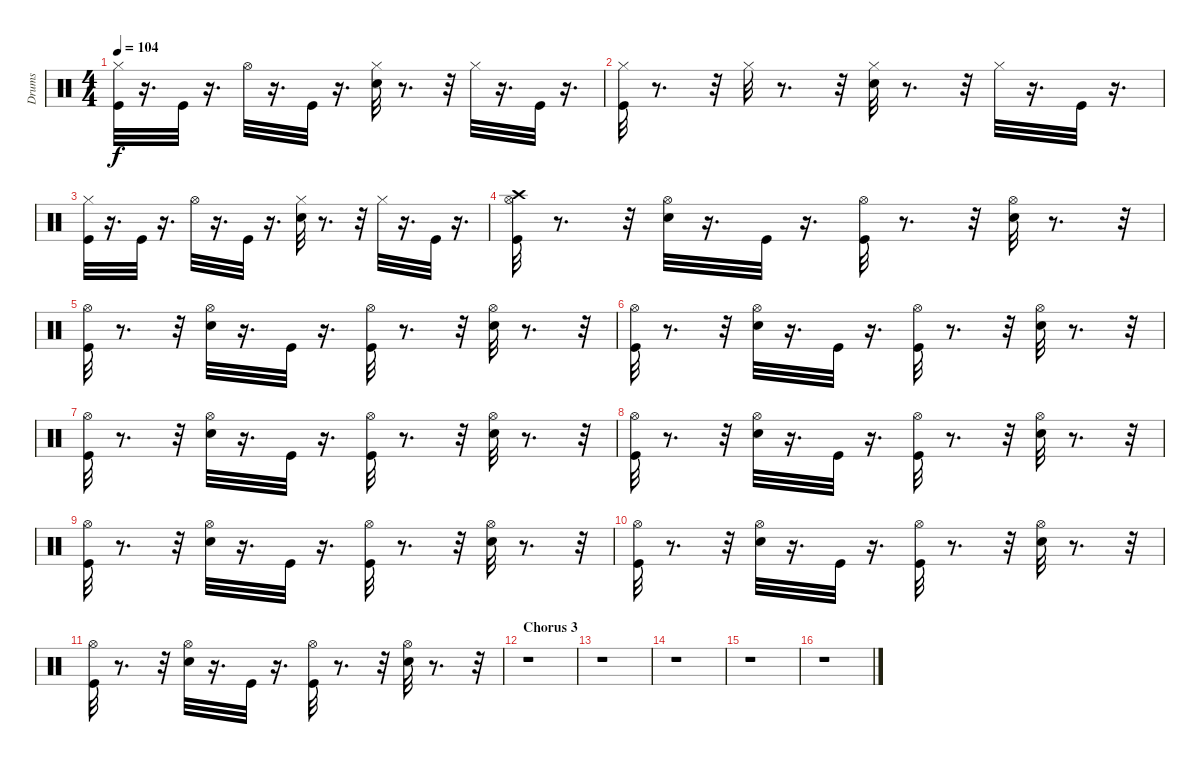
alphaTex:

\track ("Drums" "Drums") {instrument percussion}
\staff {score}
\articulation defaults
\ts (4 4)
\tempo 104
\clef neutral
\ks c
("Hi-Hat (closed)" "Kick (hit)").32{dy f} r.16{d} "Kick (hit)".32 r.16{d} "Hi-Hat (open)".32 r.16{d} "Kick (hit)".32 r.16{d} ("Hi-Hat (closed)" "Electric Snare (hit)").32 r.8{d} r.32 "Hi-Hat (closed)".32 r.16{d} "Kick (hit)".32 r.16{d} |
("Hi-Hat (closed)" "Kick (hit)").32 r.8{d} r.32 "Hi-Hat (closed)".32 r.8{d} r.32 ("Electric Snare (hit)" "Hi-Hat (closed)").32 r.8{d} r.32 "Hi-Hat (closed)".32 r.16{d} "Kick (hit)".32 r.16{d} |
("Hi-Hat (closed)" "Kick (hit)").32 r.16{d} "Kick (hit)".32 r.16{d} "Hi-Hat (open)".32 r.16{d} "Kick (hit)".32 r.16{d} ("Hi-Hat (closed)" "Electric Snare (hit)").32 r.8{d} r.32 "Hi-Hat (closed)".32 r.16{d} "Kick (hit)".32 r.16{d} |
("Crash high (hit)" "Hi-Hat (open)" "Kick (hit)").32 r.8{d} r.32 ("Hi-Hat (open)" "Electric Snare (hit)").32 r.16{d} "Kick (hit)".32 r.16{d} ("Kick (hit)" "Hi-Hat (open)").32 r.8{d} r.32 ("Hi-Hat (open)" "Electric Snare (hit)").32 r.8{d} r.32 |
("Hi-Hat (open)" "Kick (hit)").32 r.8{d} r.32 ("Hi-Hat (open)" "Electric Snare (hit)").32 r.16{d} "Kick (hit)".32 r.16{d} ("Kick (hit)" "Hi-Hat (open)").32 r.8{d} r.32 ("Hi-Hat (open)" "Electric Snare (hit)").32 r.8{d} r.32 |
("Hi-Hat (open)" "Kick (hit)").32 r.8{d} r.32 ("Hi-Hat (open)" "Electric Snare (hit)").32 r.16{d} "Kick (hit)".32 r.16{d} ("Kick (hit)" "Hi-Hat (open)").32 r.8{d} r.32 ("Hi-Hat (open)" "Electric Snare (hit)").32 r.8{d} r.32 |
("Hi-Hat (open)" "Kick (hit)").32 r.8{d} r.32 ("Hi-Hat (open)" "Electric Snare (hit)").32 r.16{d} "Kick (hit)".32 r.16{d} ("Kick (hit)" "Hi-Hat (open)").32 r.8{d} r.32 ("Hi-Hat (open)" "Electric Snare (hit)").32 r.8{d} r.32 |
("Hi-Hat (open)" "Kick (hit)").32 r.8{d} r.32 ("Hi-Hat (open)" "Electric Snare (hit)").32 r.16{d} "Kick (hit)".32 r.16{d} ("Kick (hit)" "Hi-Hat (open)").32 r.8{d} r.32 ("Hi-Hat (open)" "Electric Snare (hit)").32 r.8{d} r.32 |
("Hi-Hat (open)" "Kick (hit)").32 r.8{d} r.32 ("Hi-Hat (open)" "Electric Snare (hit)").32 r.16{d} "Kick (hit)".32 r.16{d} ("Kick (hit)" "Hi-Hat (open)").32 r.8{d} r.32 ("Hi-Hat (open)" "Electric Snare (hit)").32 r.8{d} r.32 |
("Hi-Hat (open)" "Kick (hit)").32 r.8{d} r.32 ("Hi-Hat (open)" "Electric Snare (hit)").32 r.16{d} "Kick (hit)".32 r.16{d} ("Kick (hit)" "Hi-Hat (open)").32 r.8{d} r.32 ("Hi-Hat (open)" "Electric Snare (hit)").32 r.8{d} r.32 |
("Hi-Hat (open)" "Kick (hit)").32 r.8{d} r.32 ("Hi-Hat (open)" "Electric Snare (hit)").32 r.16{d} "Kick (hit)".32 r.16{d} ("Kick (hit)" "Hi-Hat (open)").32 r.8{d} r.32 ("Hi-Hat (open)" "Electric Snare (hit)").32 r.8{d} r.32 |
\section ("" "Chorus 3")
r.1 |
r.1 |
r.1 |
r.1 |
r.1
